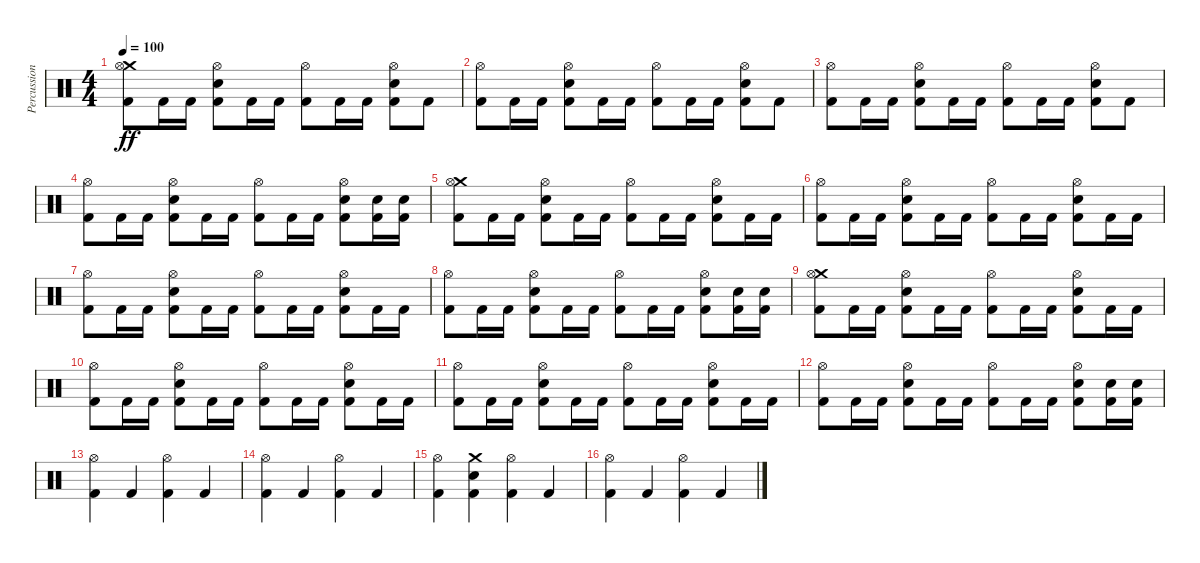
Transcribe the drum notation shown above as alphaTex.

\track ("Percussion" "Percussion") {instrument percussion}
\staff {score}
\articulation defaults
\ts (4 4)
\tempo 100
\clef neutral
\ks c
("Crash medium (hit)" "Hi-Hat (open)" "Kick (hit) 2").8{dy ff} "Kick (hit) 2".16 "Kick (hit) 2".16 ("Hi-Hat (open)" "Electric Snare (hit)" "Kick (hit) 2").8 "Kick (hit) 2".16 "Kick (hit) 2".16 ("Hi-Hat (open)" "Kick (hit) 2").8 "Kick (hit) 2".16 "Kick (hit) 2".16 ("Hi-Hat (open)" "Electric Snare (hit)" "Kick (hit) 2").8 "Kick (hit) 2".8 |
("Hi-Hat (open)" "Kick (hit) 2").8 "Kick (hit) 2".16 "Kick (hit) 2".16 ("Hi-Hat (open)" "Electric Snare (hit)" "Kick (hit) 2").8 "Kick (hit) 2".16 "Kick (hit) 2".16 ("Hi-Hat (open)" "Kick (hit) 2").8 "Kick (hit) 2".16 "Kick (hit) 2".16 ("Hi-Hat (open)" "Electric Snare (hit)" "Kick (hit) 2").8 "Kick (hit) 2".8 |
("Hi-Hat (open)" "Kick (hit) 2").8 "Kick (hit) 2".16 "Kick (hit) 2".16 ("Hi-Hat (open)" "Electric Snare (hit)" "Kick (hit) 2").8 "Kick (hit) 2".16 "Kick (hit) 2".16 ("Hi-Hat (open)" "Kick (hit) 2").8 "Kick (hit) 2".16 "Kick (hit) 2".16 ("Hi-Hat (open)" "Electric Snare (hit)" "Kick (hit) 2").8 "Kick (hit) 2".8 |
("Hi-Hat (open)" "Kick (hit) 2").8 "Kick (hit) 2".16 "Kick (hit) 2".16 ("Hi-Hat (open)" "Electric Snare (hit)" "Kick (hit) 2").8 "Kick (hit) 2".16 "Kick (hit) 2".16 ("Hi-Hat (open)" "Kick (hit) 2").8 "Kick (hit) 2".16 "Kick (hit) 2".16 ("Hi-Hat (open)" "Electric Snare (hit)" "Kick (hit) 2").8 ("Electric Snare (hit)" "Kick (hit) 2").16 ("Electric Snare (hit)" "Kick (hit) 2").16 |
("Crash medium (hit)" "Hi-Hat (open)" "Kick (hit) 2").8 "Kick (hit) 2".16 "Kick (hit) 2".16 ("Hi-Hat (open)" "Electric Snare (hit)" "Kick (hit) 2").8 "Kick (hit) 2".16 "Kick (hit) 2".16 ("Hi-Hat (open)" "Kick (hit) 2").8 "Kick (hit) 2".16 "Kick (hit) 2".16 ("Hi-Hat (open)" "Electric Snare (hit)" "Kick (hit) 2").8 "Kick (hit) 2".16 "Kick (hit) 2".16 |
("Hi-Hat (open)" "Kick (hit) 2").8 "Kick (hit) 2".16 "Kick (hit) 2".16 ("Hi-Hat (open)" "Electric Snare (hit)" "Kick (hit) 2").8 "Kick (hit) 2".16 "Kick (hit) 2".16 ("Hi-Hat (open)" "Kick (hit) 2").8 "Kick (hit) 2".16 "Kick (hit) 2".16 ("Hi-Hat (open)" "Electric Snare (hit)" "Kick (hit) 2").8 "Kick (hit) 2".16 "Kick (hit) 2".16 |
("Hi-Hat (open)" "Kick (hit) 2").8 "Kick (hit) 2".16 "Kick (hit) 2".16 ("Hi-Hat (open)" "Electric Snare (hit)" "Kick (hit) 2").8 "Kick (hit) 2".16 "Kick (hit) 2".16 ("Hi-Hat (open)" "Kick (hit) 2").8 "Kick (hit) 2".16 "Kick (hit) 2".16 ("Hi-Hat (open)" "Electric Snare (hit)" "Kick (hit) 2").8 "Kick (hit) 2".16 "Kick (hit) 2".16 |
("Hi-Hat (open)" "Kick (hit) 2").8 "Kick (hit) 2".16 "Kick (hit) 2".16 ("Hi-Hat (open)" "Electric Snare (hit)" "Kick (hit) 2").8 "Kick (hit) 2".16 "Kick (hit) 2".16 ("Hi-Hat (open)" "Kick (hit) 2").8 "Kick (hit) 2".16 "Kick (hit) 2".16 ("Hi-Hat (open)" "Electric Snare (hit)" "Kick (hit) 2").8 ("Electric Snare (hit)" "Kick (hit) 2").16 ("Electric Snare (hit)" "Kick (hit) 2").16 |
("Crash medium (hit)" "Hi-Hat (open)" "Kick (hit) 2").8 "Kick (hit) 2".16 "Kick (hit) 2".16 ("Hi-Hat (open)" "Electric Snare (hit)" "Kick (hit) 2").8 "Kick (hit) 2".16 "Kick (hit) 2".16 ("Hi-Hat (open)" "Kick (hit) 2").8 "Kick (hit) 2".16 "Kick (hit) 2".16 ("Hi-Hat (open)" "Electric Snare (hit)" "Kick (hit) 2").8 "Kick (hit) 2".16 "Kick (hit) 2".16 |
("Hi-Hat (open)" "Kick (hit) 2").8 "Kick (hit) 2".16 "Kick (hit) 2".16 ("Hi-Hat (open)" "Electric Snare (hit)" "Kick (hit) 2").8 "Kick (hit) 2".16 "Kick (hit) 2".16 ("Hi-Hat (open)" "Kick (hit) 2").8 "Kick (hit) 2".16 "Kick (hit) 2".16 ("Hi-Hat (open)" "Electric Snare (hit)" "Kick (hit) 2").8 "Kick (hit) 2".16 "Kick (hit) 2".16 |
("Hi-Hat (open)" "Kick (hit) 2").8 "Kick (hit) 2".16 "Kick (hit) 2".16 ("Hi-Hat (open)" "Electric Snare (hit)" "Kick (hit) 2").8 "Kick (hit) 2".16 "Kick (hit) 2".16 ("Hi-Hat (open)" "Kick (hit) 2").8 "Kick (hit) 2".16 "Kick (hit) 2".16 ("Hi-Hat (open)" "Electric Snare (hit)" "Kick (hit) 2").8 "Kick (hit) 2".16 "Kick (hit) 2".16 |
("Hi-Hat (open)" "Kick (hit) 2").8 "Kick (hit) 2".16 "Kick (hit) 2".16 ("Hi-Hat (open)" "Electric Snare (hit)" "Kick (hit) 2").8 "Kick (hit) 2".16 "Kick (hit) 2".16 ("Hi-Hat (open)" "Kick (hit) 2").8 "Kick (hit) 2".16 "Kick (hit) 2".16 ("Hi-Hat (open)" "Electric Snare (hit)" "Kick (hit) 2").8 ("Electric Snare (hit)" "Kick (hit) 2").16 ("Electric Snare (hit)" "Kick (hit) 2").16 |
("Hi-Hat (open)" "Kick (hit) 2").4 "Kick (hit) 2".4 ("Hi-Hat (open)" "Kick (hit) 2").4 "Kick (hit) 2".4 |
("Hi-Hat (open)" "Kick (hit) 2").4 "Kick (hit) 2".4 ("Hi-Hat (open)" "Kick (hit) 2").4 "Kick (hit) 2".4 |
("Hi-Hat (open)" "Kick (hit) 2").4 ("Crash medium (hit)" "Electric Snare (hit)" "Kick (hit) 2").4 ("Hi-Hat (open)" "Kick (hit) 2").4 "Kick (hit) 2".4 |
("Hi-Hat (open)" "Kick (hit) 2").4 "Kick (hit) 2".4 ("Hi-Hat (open)" "Kick (hit) 2").4 "Kick (hit) 2".4
